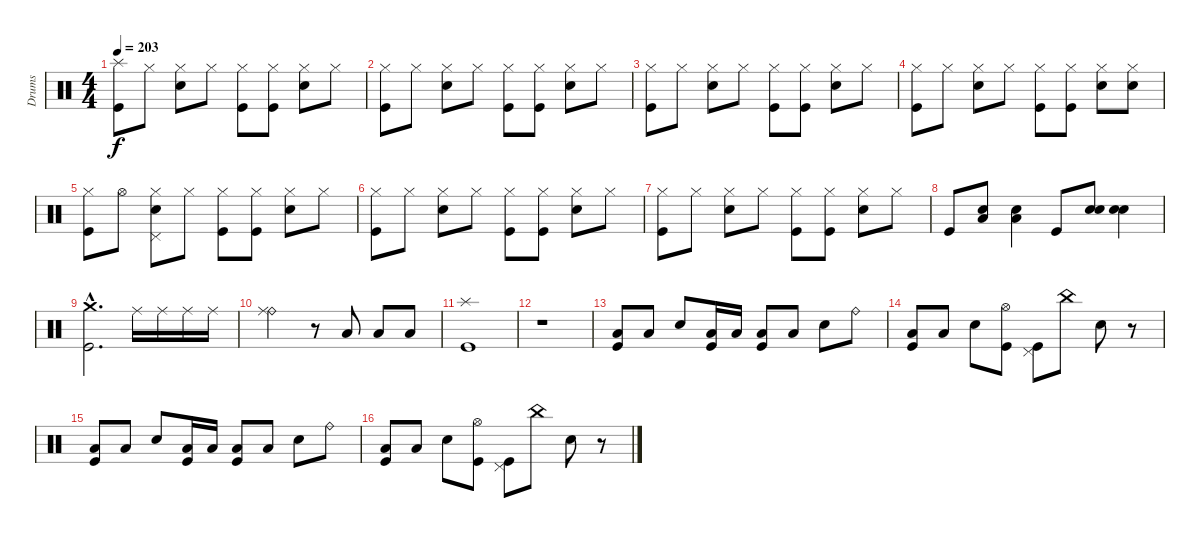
\track ("Drums" "Drums") {instrument percussion}
\staff {score}
\articulation defaults
\ts (4 4)
\tempo 203
\clef neutral
\ks c
("Splash (hit)" "Kick (hit)").8{dy f} "Hi-Hat (closed)".8 ("Hi-Hat (closed)" "Snare (hit) 2").8 "Hi-Hat (closed)".8 ("Hi-Hat (closed)" "Kick (hit)").8 ("Hi-Hat (closed)" "Kick (hit)").8 ("Hi-Hat (closed)" "Snare (hit) 2").8 "Hi-Hat (closed)".8 |
("Hi-Hat (closed)" "Kick (hit)").8 "Hi-Hat (closed)".8 ("Hi-Hat (closed)" "Snare (hit) 2").8 "Hi-Hat (closed)".8 ("Hi-Hat (closed)" "Kick (hit)").8 ("Hi-Hat (closed)" "Kick (hit)").8 ("Hi-Hat (closed)" "Snare (hit) 2").8 "Hi-Hat (closed)".8 |
("Hi-Hat (closed)" "Kick (hit)").8 "Hi-Hat (closed)".8 ("Hi-Hat (closed)" "Snare (hit) 2").8 "Hi-Hat (closed)".8 ("Hi-Hat (closed)" "Kick (hit)").8 ("Hi-Hat (closed)" "Kick (hit)").8 ("Hi-Hat (closed)" "Snare (hit) 2").8 "Hi-Hat (closed)".8 |
("Hi-Hat (closed)" "Kick (hit)").8 "Hi-Hat (closed)".8 ("Hi-Hat (closed)" "Snare (hit) 2").8 "Hi-Hat (closed)".8 ("Hi-Hat (closed)" "Kick (hit)").8 ("Hi-Hat (closed)" "Kick (hit)").8 ("Hi-Hat (closed)" "Snare (hit) 2").8 ("Hi-Hat (closed)" "Snare (hit) 2").8 |
("Hi-Hat (closed)" "Kick (hit)").8 "Hi-Hat (open)".8 ("Hi-Hat (closed)" "Pedal Hi-Hat (hit)" "Snare (hit) 2").8 "Hi-Hat (closed)".8 ("Hi-Hat (closed)" "Kick (hit)").8 ("Hi-Hat (closed)" "Kick (hit)").8 ("Hi-Hat (closed)" "Snare (hit) 2").8 "Hi-Hat (closed)".8 |
("Hi-Hat (closed)" "Kick (hit)").8 "Hi-Hat (closed)".8 ("Hi-Hat (closed)" "Snare (hit) 2").8 "Hi-Hat (closed)".8 ("Hi-Hat (closed)" "Kick (hit)").8 ("Hi-Hat (closed)" "Kick (hit)").8 ("Hi-Hat (closed)" "Snare (hit) 2").8 "Hi-Hat (closed)".8 |
("Hi-Hat (closed)" "Kick (hit)").8 "Hi-Hat (closed)".8 ("Hi-Hat (closed)" "Snare (hit) 2").8 "Hi-Hat (closed)".8 ("Hi-Hat (closed)" "Kick (hit)").8 ("Hi-Hat (closed)" "Kick (hit)").8 ("Hi-Hat (closed)" "Snare (hit) 2").8 "Hi-Hat (closed)".8 |
"Kick (hit)".8 ("Low Tom (hit)" "Snare (hit) 2").8 ("Low Tom (hit)" "Snare (hit) 2").4 "Kick (hit)".8 ("Snare (hit) 2" "Snare (hit) 2").8 ("Snare (hit) 2" "Snare (hit) 2").4 |
("Crash medium (hit)"{hac} "Kick (hit)"{hac}).2{d} "Ride (middle)".16 "Ride (middle)".16 "Ride (middle)".16 "Ride (middle)".16 |
("Ride (bell)" "Ride (middle)").2 r.8 "Low Tom (hit)".8 "Low Floor Tom (hit)".8 "Low Floor Tom (hit)".8 |
("Splash (hit)" "Kick (hit)").1 |
r.1 |
("Low Floor Tom (hit)" "Kick (hit)").8 "Low Floor Tom (hit)".8 "Snare (hit) 2".8 ("Low Tom (hit)" "Kick (hit)").16 "Low Tom (hit)".16 ("Low Floor Tom (hit)" "Kick (hit)").8 "Low Floor Tom (hit)".8 "Snare (hit) 2".8 "Ride (bell)".8 |
("Low Floor Tom (hit)" "Kick (hit)").8 "Low Floor Tom (hit)".8 "Snare (hit) 2".8 ("Hi-Hat (open)" "Kick (hit)").8 ("Pedal Hi-Hat (hit)" "Kick (hit)").8 "China (hit)".8 "Snare (hit) 2".8 r.8 |
("Low Floor Tom (hit)" "Kick (hit)").8 "Low Floor Tom (hit)".8 "Snare (hit) 2".8 ("Low Tom (hit)" "Kick (hit)").16 "Low Tom (hit)".16 ("Low Floor Tom (hit)" "Kick (hit)").8 "Low Floor Tom (hit)".8 "Snare (hit) 2".8 "Ride (bell)".8 |
("Low Floor Tom (hit)" "Kick (hit)").8 "Low Floor Tom (hit)".8 "Snare (hit) 2".8 ("Hi-Hat (open)" "Kick (hit)").8 ("Pedal Hi-Hat (hit)" "Kick (hit)").8 "China (hit)".8 "Snare (hit) 2".8 r.8
